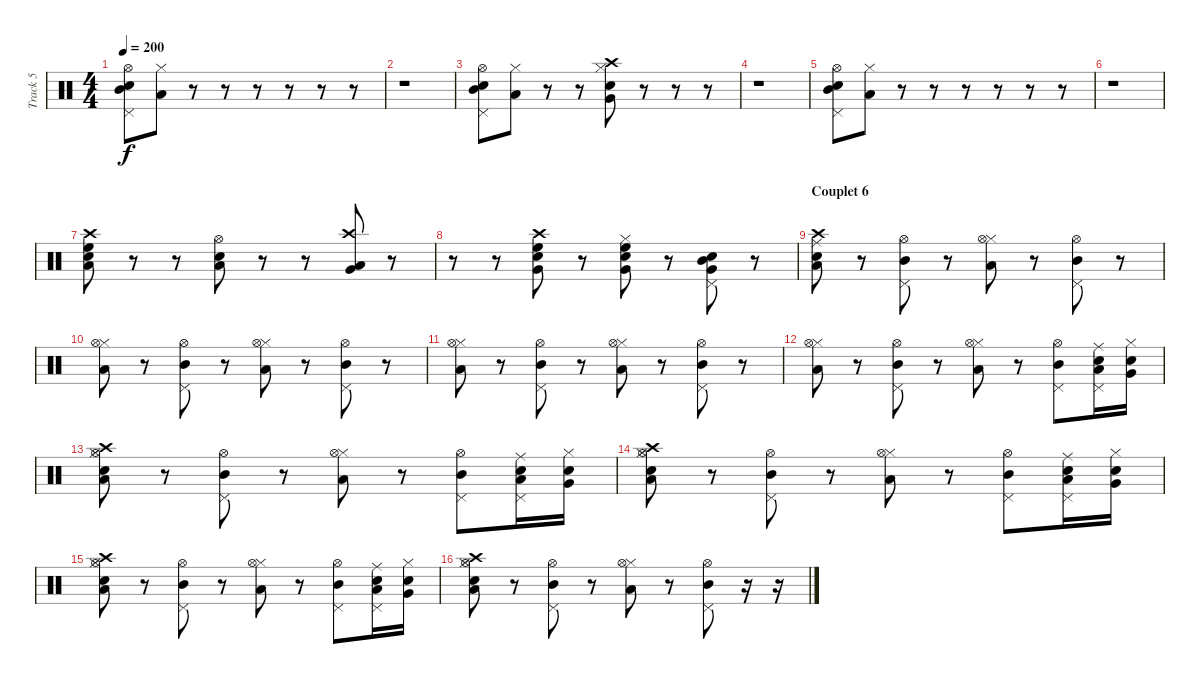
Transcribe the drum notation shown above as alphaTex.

\track ("Track 5" "Track 5") {instrument percussion}
\staff {score}
\articulation defaults
\ts (4 4)
\tempo 200
\clef neutral
\ks c
("Mid Tom (hit)" "Pedal Hi-Hat (hit)" "Snare (hit) 2" "Hi-Hat (open)").8{dy f} ("Hi-Hat (closed)" "Low Tom (hit)").8 r.8 r.8 r.8 r.8 r.8 r.8 |
r.1 |
("Mid Tom (hit)" "Pedal Hi-Hat (hit)" "Snare (hit) 2" "Hi-Hat (open)").8 ("Hi-Hat (closed)" "Low Tom (hit)").8 r.8 r.8 ("Very Low Tom (hit)" "Hi-Hat (closed)" "Electric Snare (hit)" "Crash high (hit)").8 r.8 r.8 r.8 |
r.1 |
("Mid Tom (hit)" "Pedal Hi-Hat (hit)" "Snare (hit) 2" "Hi-Hat (open)").8 ("Hi-Hat (closed)" "Low Tom (hit)").8 r.8 r.8 r.8 r.8 r.8 r.8 |
r.1 |
("High Floor Tom (hit)" "Crash high (hit)" "Electric Snare (hit)" "Low Tom (hit)").8 r.8 r.8 ("Low Tom (hit)" "Snare (hit) 2" "Hi-Hat (open)").8 r.8 r.8 ("Very Low Tom (hit)" "Crash high (hit)" "Low Floor Tom (hit)").8 r.8 |
r.8 r.8 ("High Floor Tom (hit)" "Electric Snare (hit)" "Very Low Tom (hit)" "Crash high (hit)").8 r.8 ("Very Low Tom (hit)" "Snare (hit) 2" "Hi-Hat (closed)" "High Floor Tom (hit)").8 r.8 ("Mid Tom (hit)" "Electric Snare (hit)" "Very Low Tom (hit)" "Pedal Hi-Hat (hit)").8 r.8 |
\section ("" "Couplet 6")
("Low Tom (hit)" "Snare (hit) 2" "Crash high (hit)" "Ride (middle)").8 r.8 ("Mid Tom (hit)" "Pedal Hi-Hat (hit)" "Hi-Hat (open)").8 r.8 ("Low Tom (hit)" "Hi-Hat (closed)" "Hi-Hat (open)").8 r.8 ("Mid Tom (hit)" "Pedal Hi-Hat (hit)" "Hi-Hat (open)").8 r.8 |
("Low Tom (hit)" "Hi-Hat (closed)" "Hi-Hat (open)").8 r.8 ("Mid Tom (hit)" "Pedal Hi-Hat (hit)" "Hi-Hat (open)").8 r.8 ("Low Tom (hit)" "Hi-Hat (closed)" "Hi-Hat (open)").8 r.8 ("Mid Tom (hit)" "Pedal Hi-Hat (hit)" "Hi-Hat (open)").8 r.8 |
("Low Tom (hit)" "Hi-Hat (closed)" "Hi-Hat (open)").8 r.8 ("Mid Tom (hit)" "Pedal Hi-Hat (hit)" "Hi-Hat (open)").8 r.8 ("Low Tom (hit)" "Hi-Hat (closed)" "Hi-Hat (open)").8 r.8 ("Mid Tom (hit)" "Pedal Hi-Hat (hit)" "Hi-Hat (open)").8 r.8 |
("Low Tom (hit)" "Hi-Hat (closed)" "Hi-Hat (open)").8 r.8 ("Mid Tom (hit)" "Pedal Hi-Hat (hit)" "Hi-Hat (open)").8 r.8 ("Low Tom (hit)" "Hi-Hat (closed)" "Hi-Hat (open)").8 r.8 ("Mid Tom (hit)" "Pedal Hi-Hat (hit)" "Hi-Hat (open)").8 ("Low Tom (hit)" "Pedal Hi-Hat (hit)" "Ride (middle)" "Electric Snare (hit)").16 ("Very Low Tom (hit)" "Hi-Hat (closed)" "Snare (hit) 2").16 |
("Low Tom (hit)" "Hi-Hat (closed)" "Hi-Hat (open)" "Crash high (hit)" "Electric Snare (hit)").8 r.8 ("Mid Tom (hit)" "Pedal Hi-Hat (hit)" "Hi-Hat (open)").8 r.8 ("Low Tom (hit)" "Hi-Hat (closed)" "Hi-Hat (open)").8 r.8 ("Mid Tom (hit)" "Pedal Hi-Hat (hit)" "Hi-Hat (open)").8 ("Low Tom (hit)" "Pedal Hi-Hat (hit)" "Ride (middle)" "Electric Snare (hit)").16 ("Very Low Tom (hit)" "Hi-Hat (closed)" "Snare (hit) 2").16 |
("Low Tom (hit)" "Hi-Hat (closed)" "Hi-Hat (open)" "Crash high (hit)" "Electric Snare (hit)").8 r.8 ("Mid Tom (hit)" "Pedal Hi-Hat (hit)" "Hi-Hat (open)").8 r.8 ("Low Tom (hit)" "Hi-Hat (closed)" "Hi-Hat (open)").8 r.8 ("Mid Tom (hit)" "Pedal Hi-Hat (hit)" "Hi-Hat (open)").8 ("Low Tom (hit)" "Pedal Hi-Hat (hit)" "Ride (middle)" "Electric Snare (hit)").16 ("Very Low Tom (hit)" "Hi-Hat (closed)" "Snare (hit) 2").16 |
("Low Tom (hit)" "Hi-Hat (closed)" "Hi-Hat (open)" "Crash high (hit)" "Electric Snare (hit)").8 r.8 ("Mid Tom (hit)" "Pedal Hi-Hat (hit)" "Hi-Hat (open)").8 r.8 ("Low Tom (hit)" "Hi-Hat (closed)" "Hi-Hat (open)").8 r.8 ("Mid Tom (hit)" "Pedal Hi-Hat (hit)" "Hi-Hat (open)").8 ("Low Tom (hit)" "Pedal Hi-Hat (hit)" "Ride (middle)" "Electric Snare (hit)").16 ("Very Low Tom (hit)" "Hi-Hat (closed)" "Snare (hit) 2").16 |
("Low Tom (hit)" "Hi-Hat (closed)" "Hi-Hat (open)" "Crash high (hit)" "Electric Snare (hit)").8 r.8 ("Mid Tom (hit)" "Pedal Hi-Hat (hit)" "Hi-Hat (open)").8 r.8 ("Low Tom (hit)" "Hi-Hat (closed)" "Hi-Hat (open)").8 r.8 ("Mid Tom (hit)" "Pedal Hi-Hat (hit)" "Hi-Hat (open)").8 r.16 r.16
